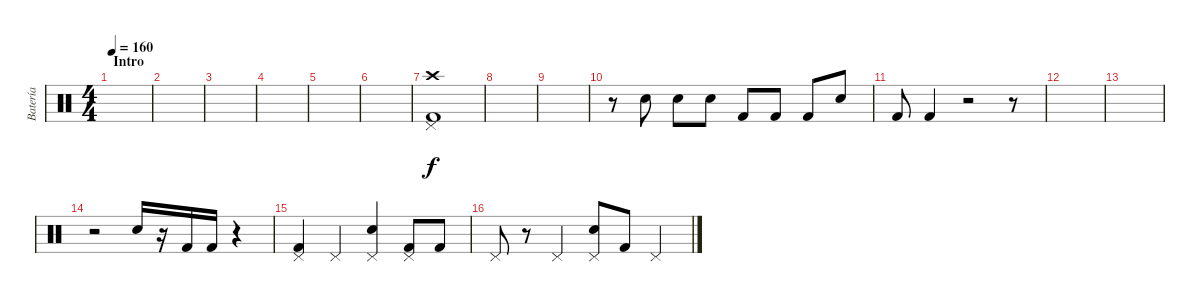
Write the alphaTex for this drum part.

\track ("Batería" "Batería") {instrument percussion}
\staff {score}
\articulation defaults
\ts (4 4)
\section ("" "Intro")
\tempo 160
\clef neutral
\ks c
|
|
|
|
|
|
("Kick (hit) 2" "Pedal Hi-Hat (hit)" "Crash high (hit)").1 |
|
|
r.8 "Electric Snare (hit)".8 "Electric Snare (hit)".8 "Electric Snare (hit)".8 "Kick (hit) 2".8 "Kick (hit) 2".8 "Kick (hit) 2".8 "Electric Snare (hit)".8 |
"Kick (hit) 2".8 "Kick (hit) 2".4 r.2 r.8 |
|
|
r.2 "Electric Snare (hit)".16 r.16 "Kick (hit) 2".16 "Kick (hit) 2".16 r.4 |
("Kick (hit) 2" "Pedal Hi-Hat (hit)").4 "Pedal Hi-Hat (hit)".4 ("Electric Snare (hit)" "Pedal Hi-Hat (hit)").4 ("Kick (hit) 2" "Pedal Hi-Hat (hit)").8 "Kick (hit) 2".8 |
"Pedal Hi-Hat (hit)".8 r.8 "Pedal Hi-Hat (hit)".4 ("Electric Snare (hit)" "Pedal Hi-Hat (hit)").8 "Kick (hit) 2".8 "Pedal Hi-Hat (hit)".4
